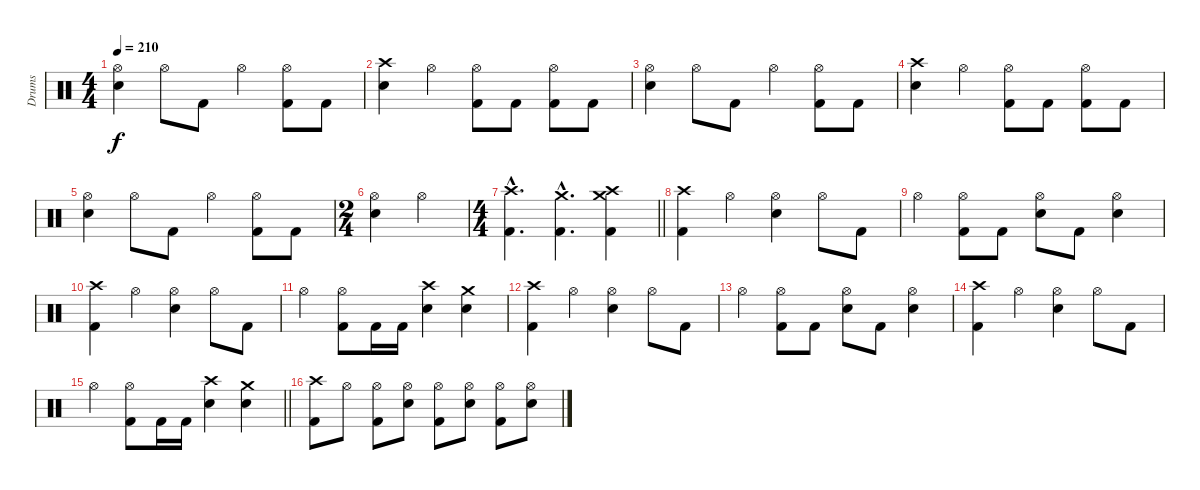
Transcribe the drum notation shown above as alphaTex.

\track ("Drums" "Drums") {instrument percussion}
\staff {score}
\articulation defaults
\ts (4 4)
\tempo 210
\clef neutral
\ks c
("Hi-Hat (open)" "Snare (hit) 2").4{dy f} "Hi-Hat (open)".8 "Kick (hit) 2".8 "Hi-Hat (open)".4 ("Hi-Hat (open)" "Kick (hit) 2").8 "Kick (hit) 2".8 |
("Crash high (hit)" "Snare (hit) 2").4 "Hi-Hat (open)".4 ("Hi-Hat (open)" "Kick (hit) 2").8 "Kick (hit) 2".8 ("Hi-Hat (open)" "Kick (hit) 2").8 "Kick (hit) 2".8 |
("Hi-Hat (open)" "Snare (hit) 2").4 "Hi-Hat (open)".8 "Kick (hit) 2".8 "Hi-Hat (open)".4 ("Hi-Hat (open)" "Kick (hit) 2").8 "Kick (hit) 2".8 |
("Crash high (hit)" "Snare (hit) 2").4 "Hi-Hat (open)".4 ("Hi-Hat (open)" "Kick (hit) 2").8 "Kick (hit) 2".8 ("Hi-Hat (open)" "Kick (hit) 2").8 "Kick (hit) 2".8 |
("Hi-Hat (open)" "Snare (hit) 2").4 "Hi-Hat (open)".8 "Kick (hit) 2".8 "Hi-Hat (open)".4 ("Hi-Hat (open)" "Kick (hit) 2").8 "Kick (hit) 2".8 |
\ts (2 4)
("Hi-Hat (open)" "Snare (hit) 2").4 "Hi-Hat (open)".4 |
\ts (4 4)
\barLineRight lightlight
("Crash high (hit)"{hac} "Kick (hit) 2"{hac}).4{d} ("Crash medium (hit)"{hac} "Kick (hit) 2"{hac}).4{d} ("Crash high (hit)" "Crash medium (hit)" "Kick (hit) 2").4 |
("Crash high (hit)" "Kick (hit) 2").4 "Hi-Hat (open)".4 ("Hi-Hat (open)" "Snare (hit) 2").4 "Hi-Hat (open)".8 "Kick (hit) 2".8 |
"Hi-Hat (open)".4 ("Hi-Hat (open)" "Kick (hit) 2").8 "Kick (hit) 2".8 ("Hi-Hat (open)" "Snare (hit) 2").8 "Kick (hit) 2".8 ("Hi-Hat (open)" "Snare (hit) 2").4 |
("Crash high (hit)" "Kick (hit) 2").4 "Hi-Hat (open)".4 ("Hi-Hat (open)" "Snare (hit) 2").4 "Hi-Hat (open)".8 "Kick (hit) 2".8 |
"Hi-Hat (open)".4 ("Hi-Hat (open)" "Kick (hit) 2").8 "Kick (hit) 2".16 "Kick (hit) 2".16 ("Crash high (hit)" "Snare (hit) 2").4 ("Crash medium (hit)" "Snare (hit) 2").4 |
("Crash high (hit)" "Kick (hit) 2").4 "Hi-Hat (open)".4 ("Hi-Hat (open)" "Snare (hit) 2").4 "Hi-Hat (open)".8 "Kick (hit) 2".8 |
"Hi-Hat (open)".4 ("Hi-Hat (open)" "Kick (hit) 2").8 "Kick (hit) 2".8 ("Hi-Hat (open)" "Snare (hit) 2").8 "Kick (hit) 2".8 ("Hi-Hat (open)" "Snare (hit) 2").4 |
("Crash high (hit)" "Kick (hit) 2").4 "Hi-Hat (open)".4 ("Hi-Hat (open)" "Snare (hit) 2").4 "Hi-Hat (open)".8 "Kick (hit) 2".8 |
\barLineRight lightlight "Hi-Hat (open)".4
("Hi-Hat (open)" "Kick (hit) 2").8 "Kick (hit) 2".16 "Kick (hit) 2".16 ("Crash high (hit)" "Snare (hit) 2").4 ("Crash medium (hit)" "Snare (hit) 2").4 |
("Crash high (hit)" "Kick (hit) 2").8 "Hi-Hat (open)".8 ("Hi-Hat (open)" "Kick (hit) 2").8 ("Hi-Hat (open)" "Snare (hit) 2").8 ("Hi-Hat (open)" "Kick (hit) 2").8 ("Hi-Hat (open)" "Snare (hit) 2").8 ("Hi-Hat (open)" "Kick (hit) 2").8 ("Hi-Hat (open)" "Snare (hit) 2").8
